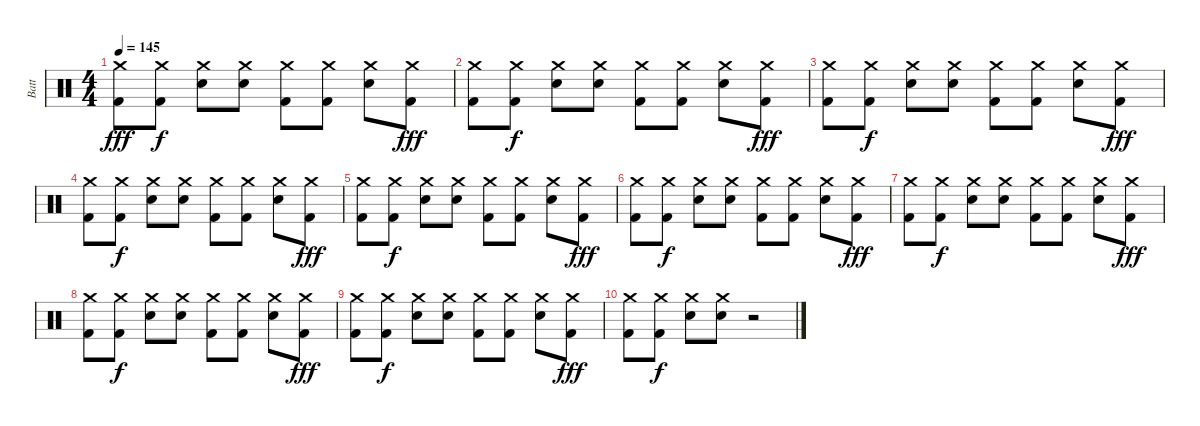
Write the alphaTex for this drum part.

\track ("Batt" "Batt") {instrument percussion}
\staff {score}
\articulation defaults
\ts (4 4)
\tempo 145
\clef neutral
\ks c
("Crash medium (hit)" "Kick (hit) 2").8{dy fff} ("Crash medium (hit)" "Kick (hit) 2").8{dy f} ("Crash medium (hit)" "Snare (hit) 2").8 ("Crash medium (hit)" "Snare (hit) 2").8 ("Crash medium (hit)" "Kick (hit) 2").8 ("Crash medium (hit)" "Kick (hit) 2").8 ("Crash medium (hit)" "Snare (hit) 2").8 ("Crash medium (hit)" "Kick (hit) 2").8{dy fff} |
("Crash medium (hit)" "Kick (hit) 2").8 ("Crash medium (hit)" "Kick (hit) 2").8{dy f} ("Crash medium (hit)" "Snare (hit) 2").8 ("Crash medium (hit)" "Snare (hit) 2").8 ("Crash medium (hit)" "Kick (hit) 2").8 ("Crash medium (hit)" "Kick (hit) 2").8 ("Crash medium (hit)" "Snare (hit) 2").8 ("Crash medium (hit)" "Kick (hit) 2").8{dy fff} |
("Crash medium (hit)" "Kick (hit) 2").8 ("Crash medium (hit)" "Kick (hit) 2").8{dy f} ("Crash medium (hit)" "Snare (hit) 2").8 ("Crash medium (hit)" "Snare (hit) 2").8 ("Crash medium (hit)" "Kick (hit) 2").8 ("Crash medium (hit)" "Kick (hit) 2").8 ("Crash medium (hit)" "Snare (hit) 2").8 ("Crash medium (hit)" "Kick (hit) 2").8{dy fff} |
("Crash medium (hit)" "Kick (hit) 2").8 ("Crash medium (hit)" "Kick (hit) 2").8{dy f} ("Crash medium (hit)" "Snare (hit) 2").8 ("Crash medium (hit)" "Snare (hit) 2").8 ("Crash medium (hit)" "Kick (hit) 2").8 ("Crash medium (hit)" "Kick (hit) 2").8 ("Crash medium (hit)" "Snare (hit) 2").8 ("Crash medium (hit)" "Kick (hit) 2").8{dy fff} |
("Crash medium (hit)" "Kick (hit) 2").8 ("Crash medium (hit)" "Kick (hit) 2").8{dy f} ("Crash medium (hit)" "Snare (hit) 2").8 ("Crash medium (hit)" "Snare (hit) 2").8 ("Crash medium (hit)" "Kick (hit) 2").8 ("Crash medium (hit)" "Kick (hit) 2").8 ("Crash medium (hit)" "Snare (hit) 2").8 ("Crash medium (hit)" "Kick (hit) 2").8{dy fff} |
("Crash medium (hit)" "Kick (hit) 2").8 ("Crash medium (hit)" "Kick (hit) 2").8{dy f} ("Crash medium (hit)" "Snare (hit) 2").8 ("Crash medium (hit)" "Snare (hit) 2").8 ("Crash medium (hit)" "Kick (hit) 2").8 ("Crash medium (hit)" "Kick (hit) 2").8 ("Crash medium (hit)" "Snare (hit) 2").8 ("Crash medium (hit)" "Kick (hit) 2").8{dy fff} |
("Crash medium (hit)" "Kick (hit) 2").8 ("Crash medium (hit)" "Kick (hit) 2").8{dy f} ("Crash medium (hit)" "Snare (hit) 2").8 ("Crash medium (hit)" "Snare (hit) 2").8 ("Crash medium (hit)" "Kick (hit) 2").8 ("Crash medium (hit)" "Kick (hit) 2").8 ("Crash medium (hit)" "Snare (hit) 2").8 ("Crash medium (hit)" "Kick (hit) 2").8{dy fff} |
("Crash medium (hit)" "Kick (hit) 2").8 ("Crash medium (hit)" "Kick (hit) 2").8{dy f} ("Crash medium (hit)" "Snare (hit) 2").8 ("Crash medium (hit)" "Snare (hit) 2").8 ("Crash medium (hit)" "Kick (hit) 2").8 ("Crash medium (hit)" "Kick (hit) 2").8 ("Crash medium (hit)" "Snare (hit) 2").8 ("Crash medium (hit)" "Kick (hit) 2").8{dy fff} |
("Crash medium (hit)" "Kick (hit) 2").8 ("Crash medium (hit)" "Kick (hit) 2").8{dy f} ("Crash medium (hit)" "Snare (hit) 2").8 ("Crash medium (hit)" "Snare (hit) 2").8 ("Crash medium (hit)" "Kick (hit) 2").8 ("Crash medium (hit)" "Kick (hit) 2").8 ("Crash medium (hit)" "Snare (hit) 2").8 ("Crash medium (hit)" "Kick (hit) 2").8{dy fff} |
("Crash medium (hit)" "Kick (hit) 2").8 ("Crash medium (hit)" "Kick (hit) 2").8{dy f} ("Crash medium (hit)" "Snare (hit) 2").8 ("Crash medium (hit)" "Snare (hit) 2").8 r.2
